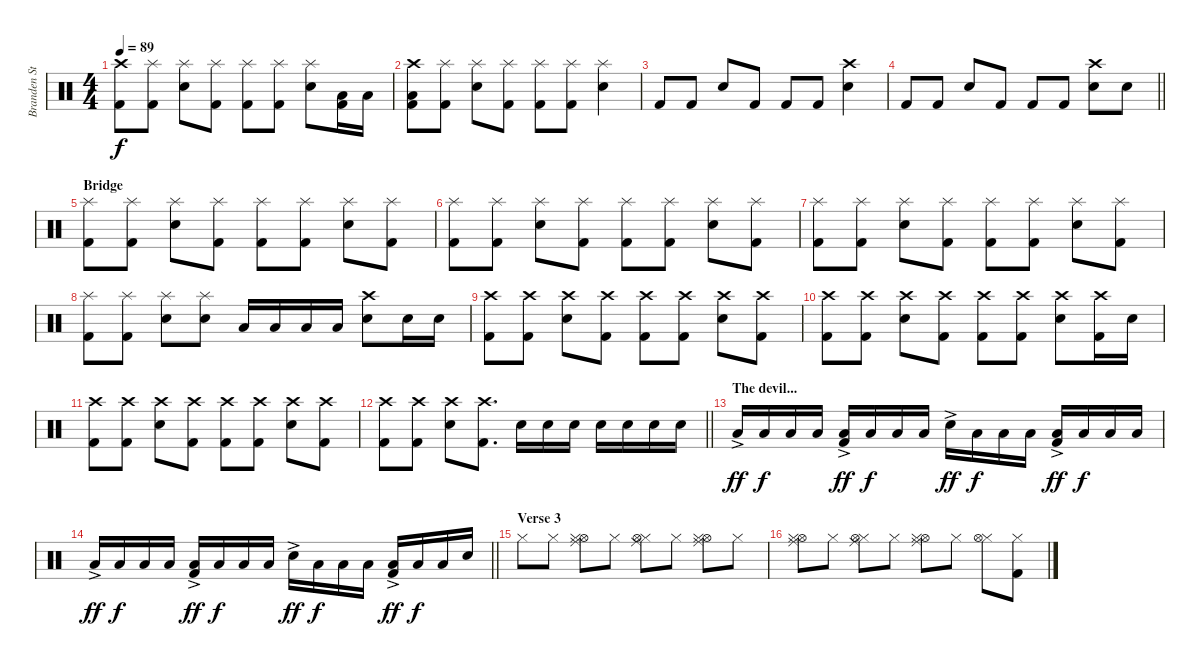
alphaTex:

\track ("Branden Steineckert" "Branden St") {instrument percussion}
\staff {score}
\articulation defaults
\ts (4 4)
\tempo 89
\clef neutral
\ks c
("Crash high (hit)" "Kick (hit) 2").8{dy f} ("Splash (hit)" "Kick (hit) 2").8 ("Splash (hit)" "Electric Snare (hit)").8 ("Splash (hit)" "Kick (hit) 2").8 ("Splash (hit)" "Kick (hit) 2").8 ("Splash (hit)" "Kick (hit) 2").8 ("Splash (hit)" "Electric Snare (hit)").8 ("Low Floor Tom (hit)" "Kick (hit) 2").16 "Low Floor Tom (hit)".16 |
("Low Floor Tom (hit)" "Crash high (hit)" "Kick (hit) 2").8 ("Splash (hit)" "Kick (hit) 2").8 ("Splash (hit)" "Electric Snare (hit)").8 ("Splash (hit)" "Kick (hit) 2").8 ("Splash (hit)" "Kick (hit) 2").8 ("Splash (hit)" "Kick (hit) 2").8 ("Splash (hit)" "Electric Snare (hit)").4 |
"Kick (hit) 2".8 "Kick (hit) 2".8 "Electric Snare (hit)".8 "Kick (hit) 2".8 "Kick (hit) 2".8 "Kick (hit) 2".8 ("Crash high (hit)" "Electric Snare (hit)").4 |
\barLineRight lightlight "Kick (hit) 2".8 "Kick (hit) 2".8 "Electric Snare (hit)".8 "Kick (hit) 2".8 "Kick (hit) 2".8 "Kick (hit) 2".8
("Crash high (hit)" "Electric Snare (hit)").8 "Electric Snare (hit)".8 |
\section ("" "Bridge")
("Splash (hit)" "Kick (hit) 2").8 ("Splash (hit)" "Kick (hit) 2").8 ("Splash (hit)" "Electric Snare (hit)").8 ("Splash (hit)" "Kick (hit) 2").8 ("Splash (hit)" "Kick (hit) 2").8 ("Splash (hit)" "Kick (hit) 2").8 ("Splash (hit)" "Electric Snare (hit)").8 ("Splash (hit)" "Kick (hit) 2").8 |
("Splash (hit)" "Kick (hit) 2").8 ("Splash (hit)" "Kick (hit) 2").8 ("Splash (hit)" "Electric Snare (hit)").8 ("Splash (hit)" "Kick (hit) 2").8 ("Splash (hit)" "Kick (hit) 2").8 ("Splash (hit)" "Kick (hit) 2").8 ("Splash (hit)" "Electric Snare (hit)").8 ("Splash (hit)" "Kick (hit) 2").8 |
("Splash (hit)" "Kick (hit) 2").8 ("Splash (hit)" "Kick (hit) 2").8 ("Splash (hit)" "Electric Snare (hit)").8 ("Splash (hit)" "Kick (hit) 2").8 ("Splash (hit)" "Kick (hit) 2").8 ("Splash (hit)" "Kick (hit) 2").8 ("Splash (hit)" "Electric Snare (hit)").8 ("Splash (hit)" "Kick (hit) 2").8 |
("Splash (hit)" "Kick (hit) 2").8 ("Splash (hit)" "Kick (hit) 2").8 ("Splash (hit)" "Electric Snare (hit)").8 ("Splash (hit)" "Electric Snare (hit)").8 "Low Floor Tom (hit)".16 "Low Floor Tom (hit)".16 "Low Floor Tom (hit)".16 "Low Floor Tom (hit)".16 ("Crash high (hit)" "Electric Snare (hit)").8 "Electric Snare (hit)".16 "Electric Snare (hit)".16 |
("Crash high (hit)" "Kick (hit) 2").8 ("Crash high (hit)" "Kick (hit) 2").8 ("Crash high (hit)" "Electric Snare (hit)").8 ("Crash high (hit)" "Kick (hit) 2").8 ("Crash high (hit)" "Kick (hit) 2").8 ("Crash high (hit)" "Kick (hit) 2").8 ("Crash high (hit)" "Electric Snare (hit)").8 ("Crash high (hit)" "Kick (hit) 2").8 |
("Crash high (hit)" "Kick (hit) 2").8 ("Crash high (hit)" "Kick (hit) 2").8 ("Crash high (hit)" "Electric Snare (hit)").8 ("Crash high (hit)" "Kick (hit) 2").8 ("Crash high (hit)" "Kick (hit) 2").8 ("Crash high (hit)" "Kick (hit) 2").8 ("Crash high (hit)" "Electric Snare (hit)").8 ("Crash high (hit)" "Kick (hit) 2").16 "Electric Snare (hit)".16 |
("Crash high (hit)" "Kick (hit) 2").8 ("Crash high (hit)" "Kick (hit) 2").8 ("Crash high (hit)" "Electric Snare (hit)").8 ("Crash high (hit)" "Kick (hit) 2").8 ("Crash high (hit)" "Kick (hit) 2").8 ("Crash high (hit)" "Kick (hit) 2").8 ("Crash high (hit)" "Electric Snare (hit)").8 ("Crash high (hit)" "Kick (hit) 2").8 |
\barLineRight lightlight
("Crash high (hit)" "Kick (hit) 2").8 ("Crash high (hit)" "Kick (hit) 2").8 ("Crash high (hit)" "Electric Snare (hit)").8 ("Crash high (hit)" "Kick (hit) 2").8{d} "Electric Snare (hit)".16 "Electric Snare (hit)".16 "Electric Snare (hit)".16 "Electric Snare (hit)".16 "Electric Snare (hit)".16 "Electric Snare (hit)".16 "Electric Snare (hit)".16 |
\section ("" "The devil...")
"Low Floor Tom (hit)"{ac}.16{dy ff} "Low Floor Tom (hit)".16{dy f} "Low Floor Tom (hit)".16 "Low Floor Tom (hit)".16 ("Low Floor Tom (hit)"{ac} "Kick (hit) 2").16{dy ff} "Low Floor Tom (hit)".16{dy f} "Low Floor Tom (hit)".16 "Low Floor Tom (hit)".16 "Electric Snare (hit)"{ac}.16{dy ff} "Low Floor Tom (hit)".16{dy f} "Low Floor Tom (hit)".16 "Low Floor Tom (hit)".16 ("Low Floor Tom (hit)"{ac} "Kick (hit) 2").16{dy ff} "Low Floor Tom (hit)".16{dy f} "Low Floor Tom (hit)".16 "Low Floor Tom (hit)".16 |
\barLineRight lightlight "Low Floor Tom (hit)"{ac}.16{dy ff} "Low Floor Tom (hit)".16{dy f} "Low Floor Tom (hit)".16 "Low Floor Tom (hit)".16
("Low Floor Tom (hit)"{ac} "Kick (hit) 2").16{dy ff} "Low Floor Tom (hit)".16{dy f} "Low Floor Tom (hit)".16 "Low Floor Tom (hit)".16 "Electric Snare (hit)"{ac}.16{dy ff} "Low Floor Tom (hit)".16{dy f} "Low Floor Tom (hit)".16 "Low Floor Tom (hit)".16 ("Low Floor Tom (hit)"{ac} "Kick (hit) 2").16{dy ff} "Low Floor Tom (hit)".16{dy f} "Low Floor Tom (hit)".16 "Electric Snare (hit)".16 |
\section ("" "Verse 3")
"Hi-Hat (closed)".8 "Hi-Hat (closed)".8 ("Hi-Hat (open)" "Hi-Hat (closed)" "Ride (middle)").8 "Hi-Hat (closed)".8 ("Ride (middle)" "Hi-Hat (closed)" "Hi-Hat (open)").8 "Hi-Hat (closed)".8 ("Hi-Hat (open)" "Hi-Hat (closed)" "Ride (middle)").8 "Hi-Hat (closed)".8 |
("Hi-Hat (open)" "Hi-Hat (closed)" "Ride (middle)").8 "Hi-Hat (closed)".8 ("Ride (middle)" "Hi-Hat (closed)" "Hi-Hat (open)").8 "Hi-Hat (closed)".8 ("Hi-Hat (open)" "Hi-Hat (closed)" "Ride (middle)").8 "Hi-Hat (closed)".8 ("Hi-Hat (closed)" "Hi-Hat (open)").8 ("Hi-Hat (closed)" "Kick (hit) 2").8
